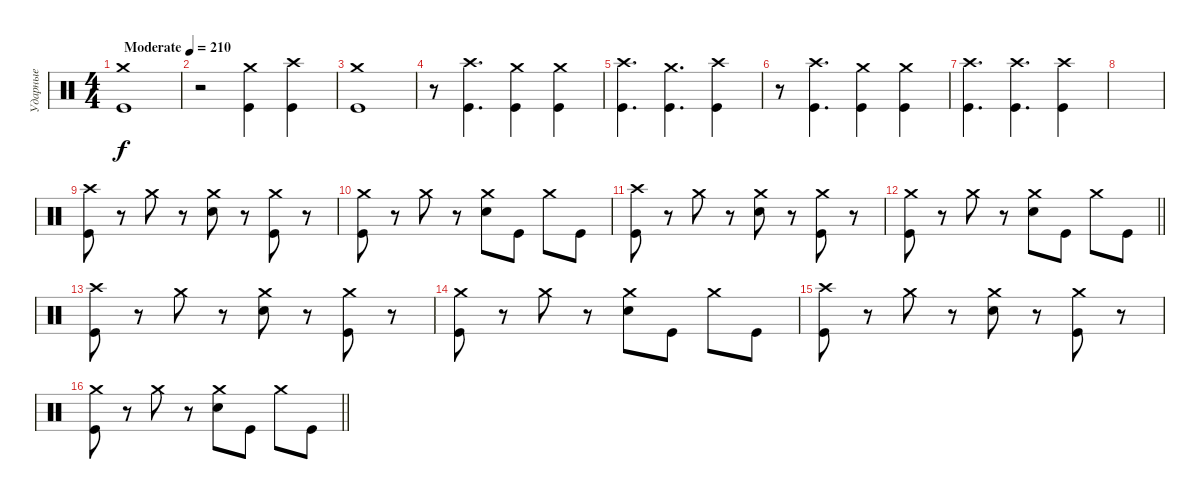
\track ("Ударные" "Ударные") {instrument percussion}
\staff {score}
\articulation defaults
\ts (4 4)
\tempo (210 "Moderate")
\clef neutral
\ks c
("Crash medium (hit)" "Kick (hit)").1{dy f} |
r.2 ("Crash medium (hit)" "Kick (hit)").4 ("Crash high (hit)" "Kick (hit)").4 |
("Crash medium (hit)" "Kick (hit)").1 |
r.8 ("Crash high (hit)" "Kick (hit)").4{d} ("Crash medium (hit)" "Kick (hit)").4 ("Crash medium (hit)" "Kick (hit)").4 |
("Crash high (hit)" "Kick (hit)").4{d} ("Crash medium (hit)" "Kick (hit)").4{d} ("Crash high (hit)" "Kick (hit)").4 |
r.8 ("Crash high (hit)" "Kick (hit)").4{d} ("Crash medium (hit)" "Kick (hit)").4 ("Crash medium (hit)" "Kick (hit)").4 |
("Crash high (hit)" "Kick (hit)").4{d} ("Crash high (hit)" "Kick (hit)").4{d} ("Crash high (hit)" "Kick (hit)").4 |
|
("Crash high (hit)" "Kick (hit)").8 r.8 "Crash medium (hit)".8 r.8 ("Crash medium (hit)" "Snare (hit) 2").8 r.8 ("Crash medium (hit)" "Kick (hit)").8 r.8 |
("Crash medium (hit)" "Kick (hit)").8 r.8 "Crash medium (hit)".8 r.8 ("Crash medium (hit)" "Snare (hit) 2").8 "Kick (hit)".8 "Crash medium (hit)".8 "Kick (hit)".8 |
("Crash high (hit)" "Kick (hit)").8 r.8 "Crash medium (hit)".8 r.8 ("Crash medium (hit)" "Snare (hit) 2").8 r.8 ("Crash medium (hit)" "Kick (hit)").8 r.8 |
\barLineRight lightlight
("Crash medium (hit)" "Kick (hit)").8 r.8 "Crash medium (hit)".8 r.8 ("Crash medium (hit)" "Snare (hit) 2").8 "Kick (hit)".8 "Crash medium (hit)".8 "Kick (hit)".8 |
("Crash high (hit)" "Kick (hit)").8 r.8 "Crash medium (hit)".8 r.8 ("Crash medium (hit)" "Snare (hit) 2").8 r.8 ("Crash medium (hit)" "Kick (hit)").8 r.8 |
("Crash medium (hit)" "Kick (hit)").8 r.8 "Crash medium (hit)".8 r.8 ("Crash medium (hit)" "Snare (hit) 2").8 "Kick (hit)".8 "Crash medium (hit)".8 "Kick (hit)".8 |
("Crash high (hit)" "Kick (hit)").8 r.8 "Crash medium (hit)".8 r.8 ("Crash medium (hit)" "Snare (hit) 2").8 r.8 ("Crash medium (hit)" "Kick (hit)").8 r.8 |
\barLineRight lightlight
("Crash medium (hit)" "Kick (hit)").8 r.8 "Crash medium (hit)".8 r.8 ("Crash medium (hit)" "Snare (hit) 2").8 "Kick (hit)".8 "Crash medium (hit)".8 "Kick (hit)".8
